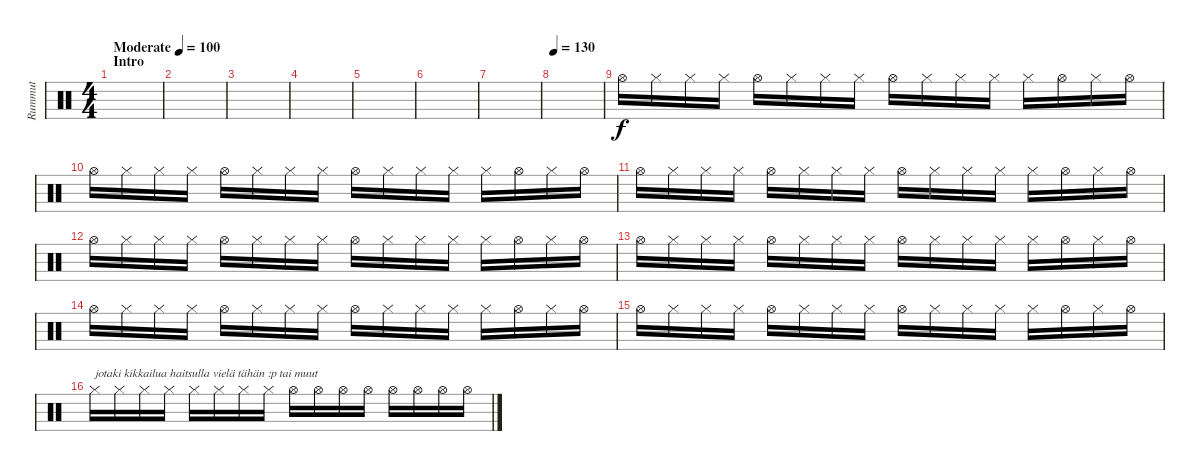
\track ("Rummut" "Rummut") {instrument percussion}
\staff {score}
\articulation defaults
\ts (4 4)
\section ("" "Intro")
\tempo (100 "Moderate")
\clef neutral
\ks c
|
|
|
|
|
|
|
\tempo 130
|
"Hi-Hat (open)".16 "Hi-Hat (closed)".16 "Hi-Hat (closed)".16 "Hi-Hat (closed)".16 "Hi-Hat (open)".16 "Hi-Hat (closed)".16 "Hi-Hat (closed)".16 "Hi-Hat (closed)".16 "Hi-Hat (open)".16 "Hi-Hat (closed)".16 "Hi-Hat (closed)".16 "Hi-Hat (closed)".16 "Hi-Hat (closed)".16 "Hi-Hat (open)".16 "Hi-Hat (closed)".16 "Hi-Hat (open)".16 |
"Hi-Hat (open)".16 "Hi-Hat (closed)".16 "Hi-Hat (closed)".16 "Hi-Hat (closed)".16 "Hi-Hat (open)".16 "Hi-Hat (closed)".16 "Hi-Hat (closed)".16 "Hi-Hat (closed)".16 "Hi-Hat (open)".16 "Hi-Hat (closed)".16 "Hi-Hat (closed)".16 "Hi-Hat (closed)".16 "Hi-Hat (closed)".16 "Hi-Hat (open)".16 "Hi-Hat (closed)".16 "Hi-Hat (open)".16 |
"Hi-Hat (open)".16 "Hi-Hat (closed)".16 "Hi-Hat (closed)".16 "Hi-Hat (closed)".16 "Hi-Hat (open)".16 "Hi-Hat (closed)".16 "Hi-Hat (closed)".16 "Hi-Hat (closed)".16 "Hi-Hat (open)".16 "Hi-Hat (closed)".16 "Hi-Hat (closed)".16 "Hi-Hat (closed)".16 "Hi-Hat (closed)".16 "Hi-Hat (open)".16 "Hi-Hat (closed)".16 "Hi-Hat (open)".16 |
"Hi-Hat (open)".16 "Hi-Hat (closed)".16 "Hi-Hat (closed)".16 "Hi-Hat (closed)".16 "Hi-Hat (open)".16 "Hi-Hat (closed)".16 "Hi-Hat (closed)".16 "Hi-Hat (closed)".16 "Hi-Hat (open)".16 "Hi-Hat (closed)".16 "Hi-Hat (closed)".16 "Hi-Hat (closed)".16 "Hi-Hat (closed)".16 "Hi-Hat (open)".16 "Hi-Hat (closed)".16 "Hi-Hat (open)".16 |
"Hi-Hat (open)".16 "Hi-Hat (closed)".16 "Hi-Hat (closed)".16 "Hi-Hat (closed)".16 "Hi-Hat (open)".16 "Hi-Hat (closed)".16 "Hi-Hat (closed)".16 "Hi-Hat (closed)".16 "Hi-Hat (open)".16 "Hi-Hat (closed)".16 "Hi-Hat (closed)".16 "Hi-Hat (closed)".16 "Hi-Hat (closed)".16 "Hi-Hat (open)".16 "Hi-Hat (closed)".16 "Hi-Hat (open)".16 |
"Hi-Hat (open)".16 "Hi-Hat (closed)".16 "Hi-Hat (closed)".16 "Hi-Hat (closed)".16 "Hi-Hat (open)".16 "Hi-Hat (closed)".16 "Hi-Hat (closed)".16 "Hi-Hat (closed)".16 "Hi-Hat (open)".16 "Hi-Hat (closed)".16 "Hi-Hat (closed)".16 "Hi-Hat (closed)".16 "Hi-Hat (closed)".16 "Hi-Hat (open)".16 "Hi-Hat (closed)".16 "Hi-Hat (open)".16 |
"Hi-Hat (open)".16 "Hi-Hat (closed)".16 "Hi-Hat (closed)".16 "Hi-Hat (closed)".16 "Hi-Hat (open)".16 "Hi-Hat (closed)".16 "Hi-Hat (closed)".16 "Hi-Hat (closed)".16 "Hi-Hat (open)".16 "Hi-Hat (closed)".16 "Hi-Hat (closed)".16 "Hi-Hat (closed)".16 "Hi-Hat (closed)".16 "Hi-Hat (open)".16 "Hi-Hat (closed)".16 "Hi-Hat (open)".16 |
"Hi-Hat (closed)".16{txt "jotaki kikkailua haitsulla vielä tähän :p tai muut"} "Hi-Hat (closed)".16 "Hi-Hat (closed)".16 "Hi-Hat (closed)".16 "Hi-Hat (closed)".16 "Hi-Hat (closed)".16 "Hi-Hat (closed)".16 "Hi-Hat (closed)".16 "Hi-Hat (open)".16 "Hi-Hat (open)".16 "Hi-Hat (open)".16 "Hi-Hat (open)".16 "Hi-Hat (open)".16 "Hi-Hat (open)".16 "Hi-Hat (open)".16 "Hi-Hat (open)".16
